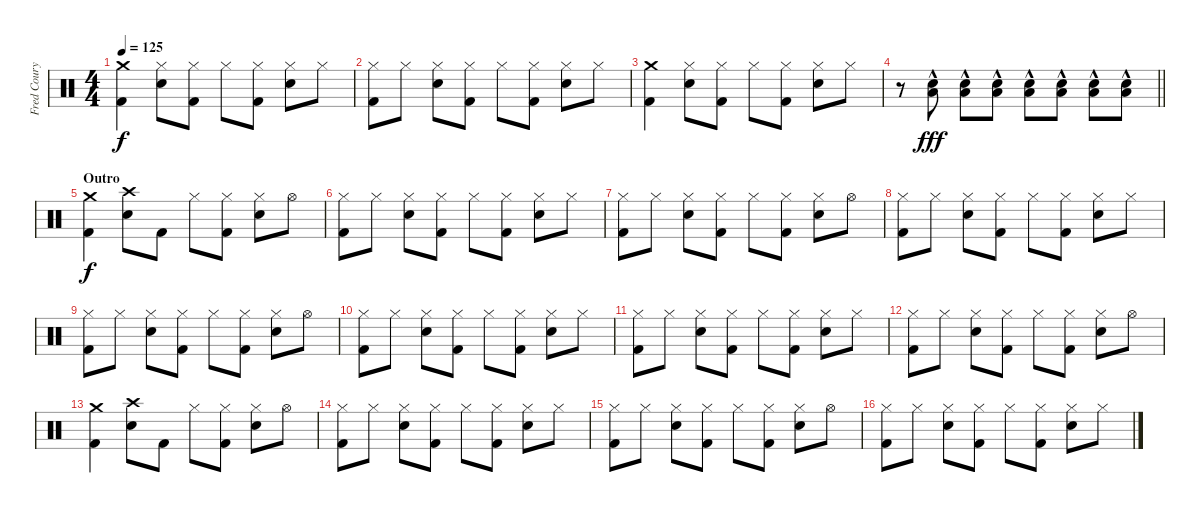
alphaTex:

\track ("Fred Coury - Drums" "Fred Coury") {instrument percussion}
\staff {score}
\articulation defaults
\ts (4 4)
\tempo 125
\clef neutral
\ks c
("Crash medium (hit)" "Kick (hit) 2").4{dy f} ("Hi-Hat (closed)" "Snare (hit) 2").8 ("Hi-Hat (closed)" "Kick (hit) 2").8 "Hi-Hat (closed)".8 ("Hi-Hat (closed)" "Kick (hit) 2").8 ("Hi-Hat (closed)" "Snare (hit) 2").8 "Hi-Hat (closed)".8 |
("Hi-Hat (closed)" "Kick (hit) 2").8 "Hi-Hat (closed)".8 ("Hi-Hat (closed)" "Snare (hit) 2").8 ("Hi-Hat (closed)" "Kick (hit) 2").8 "Hi-Hat (closed)".8 ("Hi-Hat (closed)" "Kick (hit) 2").8 ("Hi-Hat (closed)" "Snare (hit) 2").8 "Hi-Hat (closed)".8 |
("Crash medium (hit)" "Kick (hit) 2").4 ("Hi-Hat (closed)" "Snare (hit) 2").8 ("Hi-Hat (closed)" "Kick (hit) 2").8 "Hi-Hat (closed)".8 ("Hi-Hat (closed)" "Kick (hit) 2").8 ("Hi-Hat (closed)" "Snare (hit) 2").8 "Hi-Hat (closed)".8 |
\barLineRight lightlight
r.8 ("Low Tom (hit)"{hac} "Snare (hit) 2"{hac}).8{dy fff} ("Low Tom (hit)"{hac} "Snare (hit) 2"{hac}).8 ("Low Tom (hit)"{hac} "Snare (hit) 2"{hac}).8 ("Low Tom (hit)"{hac} "Snare (hit) 2"{hac}).8 ("Low Tom (hit)"{hac} "Snare (hit) 2"{hac}).8 ("Low Tom (hit)"{hac} "Snare (hit) 2"{hac}).8 ("Low Tom (hit)"{hac} "Snare (hit) 2"{hac}).8 |
\section ("" "Outro")
("Crash medium (hit)" "Kick (hit) 2").4{dy f} ("Crash high (hit)" "Snare (hit) 2").8 "Kick (hit) 2".8 "Hi-Hat (closed)".8 ("Hi-Hat (closed)" "Kick (hit) 2").8 ("Hi-Hat (closed)" "Snare (hit) 2").8 "Hi-Hat (open)".8 |
("Hi-Hat (closed)" "Kick (hit) 2").8 "Hi-Hat (closed)".8 ("Hi-Hat (closed)" "Snare (hit) 2").8 ("Hi-Hat (closed)" "Kick (hit) 2").8 "Hi-Hat (closed)".8 ("Hi-Hat (closed)" "Kick (hit) 2").8 ("Hi-Hat (closed)" "Snare (hit) 2").8 "Hi-Hat (closed)".8 |
("Hi-Hat (closed)" "Kick (hit) 2").8 "Hi-Hat (closed)".8 ("Hi-Hat (closed)" "Snare (hit) 2").8 ("Hi-Hat (closed)" "Kick (hit) 2").8 "Hi-Hat (closed)".8 ("Hi-Hat (closed)" "Kick (hit) 2").8 ("Hi-Hat (closed)" "Snare (hit) 2").8 "Hi-Hat (open)".8 |
("Hi-Hat (closed)" "Kick (hit) 2").8 "Hi-Hat (closed)".8 ("Hi-Hat (closed)" "Snare (hit) 2").8 ("Hi-Hat (closed)" "Kick (hit) 2").8 "Hi-Hat (closed)".8 ("Hi-Hat (closed)" "Kick (hit) 2").8 ("Hi-Hat (closed)" "Snare (hit) 2").8 "Hi-Hat (closed)".8 |
("Hi-Hat (closed)" "Kick (hit) 2").8 "Hi-Hat (closed)".8 ("Hi-Hat (closed)" "Snare (hit) 2").8 ("Hi-Hat (closed)" "Kick (hit) 2").8 "Hi-Hat (closed)".8 ("Hi-Hat (closed)" "Kick (hit) 2").8 ("Hi-Hat (closed)" "Snare (hit) 2").8 "Hi-Hat (open)".8 |
("Hi-Hat (closed)" "Kick (hit) 2").8 "Hi-Hat (closed)".8 ("Hi-Hat (closed)" "Snare (hit) 2").8 ("Hi-Hat (closed)" "Kick (hit) 2").8 "Hi-Hat (closed)".8 ("Hi-Hat (closed)" "Kick (hit) 2").8 ("Hi-Hat (closed)" "Snare (hit) 2").8 "Hi-Hat (closed)".8 |
("Hi-Hat (closed)" "Kick (hit) 2").8 "Hi-Hat (closed)".8 ("Hi-Hat (closed)" "Snare (hit) 2").8 ("Hi-Hat (closed)" "Kick (hit) 2").8 "Hi-Hat (closed)".8 ("Hi-Hat (closed)" "Kick (hit) 2").8 ("Hi-Hat (closed)" "Snare (hit) 2").8 "Hi-Hat (closed)".8 |
("Hi-Hat (closed)" "Kick (hit) 2").8 "Hi-Hat (closed)".8 ("Hi-Hat (closed)" "Snare (hit) 2").8 ("Hi-Hat (closed)" "Kick (hit) 2").8 "Hi-Hat (closed)".8 ("Hi-Hat (closed)" "Kick (hit) 2").8 ("Hi-Hat (closed)" "Snare (hit) 2").8 "Hi-Hat (open)".8 |
("Crash medium (hit)" "Kick (hit) 2").4 ("Crash high (hit)" "Snare (hit) 2").8 "Kick (hit) 2".8 "Hi-Hat (closed)".8 ("Hi-Hat (closed)" "Kick (hit) 2").8 ("Hi-Hat (closed)" "Snare (hit) 2").8 "Hi-Hat (open)".8 |
("Hi-Hat (closed)" "Kick (hit) 2").8 "Hi-Hat (closed)".8 ("Hi-Hat (closed)" "Snare (hit) 2").8 ("Hi-Hat (closed)" "Kick (hit) 2").8 "Hi-Hat (closed)".8 ("Hi-Hat (closed)" "Kick (hit) 2").8 ("Hi-Hat (closed)" "Snare (hit) 2").8 "Hi-Hat (closed)".8 |
("Hi-Hat (closed)" "Kick (hit) 2").8 "Hi-Hat (closed)".8 ("Hi-Hat (closed)" "Snare (hit) 2").8 ("Hi-Hat (closed)" "Kick (hit) 2").8 "Hi-Hat (closed)".8 ("Hi-Hat (closed)" "Kick (hit) 2").8 ("Hi-Hat (closed)" "Snare (hit) 2").8 "Hi-Hat (open)".8 |
("Hi-Hat (closed)" "Kick (hit) 2").8 "Hi-Hat (closed)".8 ("Hi-Hat (closed)" "Snare (hit) 2").8 ("Hi-Hat (closed)" "Kick (hit) 2").8 "Hi-Hat (closed)".8 ("Hi-Hat (closed)" "Kick (hit) 2").8 ("Hi-Hat (closed)" "Snare (hit) 2").8 "Hi-Hat (closed)".8
